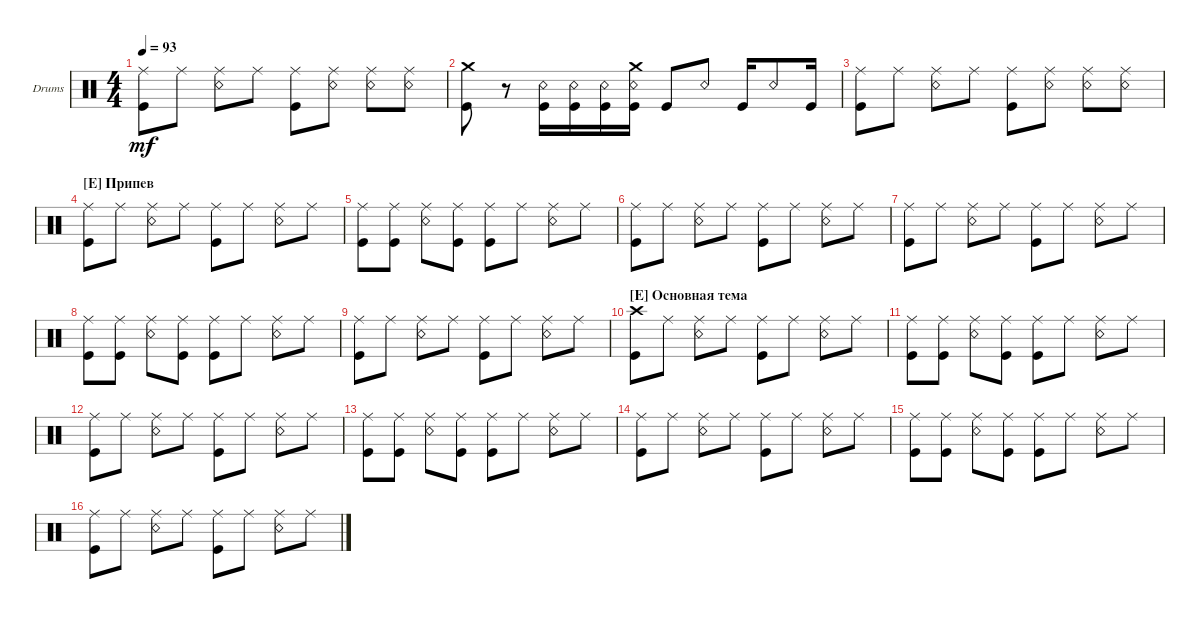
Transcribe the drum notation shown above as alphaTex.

\bracketExtendMode groupsimilarinstruments
\firstSystemTrackNameOrientation horizontal
\otherSystemsTrackNameOrientation horizontal
\track ("Drumkit" "Drums") {instrument percussion}
\staff {score}
\articulation defaults
\ts (4 4)
\tempo 93
\clef neutral
\ks c
("Kick (hit)" "Ride (middle)").8{dy mf} "Ride (middle)".8 ("Ride (middle)" "Snare (rim shot)").8 "Ride (middle)".8 ("Ride (middle)" "Kick (hit)").8 ("Ride (middle)" "Snare (rim shot)").8 ("Ride (middle)" "Snare (rim shot)").8 ("Ride (middle)" "Snare (rim shot)").8 |
("Kick (hit)" "Crash medium (hit)").8 r.8 ("Kick (hit)" "Snare (rim shot)").16 ("Kick (hit)" "Snare (rim shot)").16 ("Kick (hit)" "Snare (rim shot)").16 ("Crash medium (hit)" "Snare (rim shot)" "Kick (hit)").16 "Kick (hit)".8 "Snare (rim shot)".8 "Kick (hit)".16 "Snare (rim shot)".8 "Kick (hit)".16 |
("Kick (hit)" "Ride (middle)").8 "Ride (middle)".8 ("Ride (middle)" "Snare (rim shot)").8 "Ride (middle)".8 ("Ride (middle)" "Kick (hit)").8 ("Ride (middle)" "Snare (rim shot)").8 ("Ride (middle)" "Snare (rim shot)").8 ("Ride (middle)" "Snare (rim shot)").8 |
\section ("E" "Припев")
("Kick (hit)" "Ride (middle)").8 "Ride (middle)".8 ("Ride (middle)" "Snare (rim shot)").8 "Ride (middle)".8 ("Ride (middle)" "Kick (hit)").8 "Ride (middle)".8 ("Ride (middle)" "Snare (rim shot)").8 "Ride (middle)".8 |
("Kick (hit)" "Ride (middle)").8 ("Kick (hit)" "Ride (middle)").8 ("Snare (rim shot)" "Ride (middle)").8 ("Kick (hit)" "Ride (middle)").8 ("Ride (middle)" "Kick (hit)").8 "Ride (middle)".8 ("Ride (middle)" "Snare (rim shot)").8 "Ride (middle)".8 |
("Kick (hit)" "Ride (middle)").8 "Ride (middle)".8 ("Ride (middle)" "Snare (rim shot)").8 "Ride (middle)".8 ("Ride (middle)" "Kick (hit)").8 "Ride (middle)".8 ("Ride (middle)" "Snare (rim shot)").8 "Ride (middle)".8 |
("Kick (hit)" "Ride (middle)").8 "Ride (middle)".8 ("Ride (middle)" "Snare (rim shot)").8 "Ride (middle)".8 ("Ride (middle)" "Kick (hit)").8 "Ride (middle)".8 ("Ride (middle)" "Snare (rim shot)").8 "Ride (middle)".8 |
("Kick (hit)" "Ride (middle)").8 ("Kick (hit)" "Ride (middle)").8 ("Snare (rim shot)" "Ride (middle)").8 ("Kick (hit)" "Ride (middle)").8 ("Ride (middle)" "Kick (hit)").8 "Ride (middle)".8 ("Ride (middle)" "Snare (rim shot)").8 "Ride (middle)".8 |
("Kick (hit)" "Ride (middle)").8 "Ride (middle)".8 ("Ride (middle)" "Snare (rim shot)").8 "Ride (middle)".8 ("Ride (middle)" "Kick (hit)").8 "Ride (middle)".8 ("Ride (middle)" "Snare (rim shot)").8 "Ride (middle)".8 |
\section ("E" "Основная тема")
("Kick (hit)" "Crash high (hit)").8 "Ride (middle)".8 ("Ride (middle)" "Snare (rim shot)").8 "Ride (middle)".8 ("Ride (middle)" "Kick (hit)").8 "Ride (middle)".8 ("Ride (middle)" "Snare (rim shot)").8 "Ride (middle)".8 |
("Kick (hit)" "Ride (middle)").8 ("Kick (hit)" "Ride (middle)").8 ("Snare (rim shot)" "Ride (middle)").8 ("Kick (hit)" "Ride (middle)").8 ("Ride (middle)" "Kick (hit)").8 "Ride (middle)".8 ("Ride (middle)" "Snare (rim shot)").8 "Ride (middle)".8 |
("Kick (hit)" "Ride (middle)").8 "Ride (middle)".8 ("Ride (middle)" "Snare (rim shot)").8 "Ride (middle)".8 ("Ride (middle)" "Kick (hit)").8 "Ride (middle)".8 ("Ride (middle)" "Snare (rim shot)").8 "Ride (middle)".8 |
("Kick (hit)" "Ride (middle)").8 ("Kick (hit)" "Ride (middle)").8 ("Snare (rim shot)" "Ride (middle)").8 ("Kick (hit)" "Ride (middle)").8 ("Ride (middle)" "Kick (hit)").8 "Ride (middle)".8 ("Ride (middle)" "Snare (rim shot)").8 "Ride (middle)".8 |
("Kick (hit)" "Ride (middle)").8 "Ride (middle)".8 ("Ride (middle)" "Snare (rim shot)").8 "Ride (middle)".8 ("Ride (middle)" "Kick (hit)").8 "Ride (middle)".8 ("Ride (middle)" "Snare (rim shot)").8 "Ride (middle)".8 |
("Kick (hit)" "Ride (middle)").8 ("Kick (hit)" "Ride (middle)").8 ("Snare (rim shot)" "Ride (middle)").8 ("Kick (hit)" "Ride (middle)").8 ("Ride (middle)" "Kick (hit)").8 "Ride (middle)".8 ("Ride (middle)" "Snare (rim shot)").8 "Ride (middle)".8 |
("Kick (hit)" "Ride (middle)").8 "Ride (middle)".8 ("Ride (middle)" "Snare (rim shot)").8 "Ride (middle)".8 ("Ride (middle)" "Kick (hit)").8 "Ride (middle)".8 ("Ride (middle)" "Snare (rim shot)").8 "Ride (middle)".8
